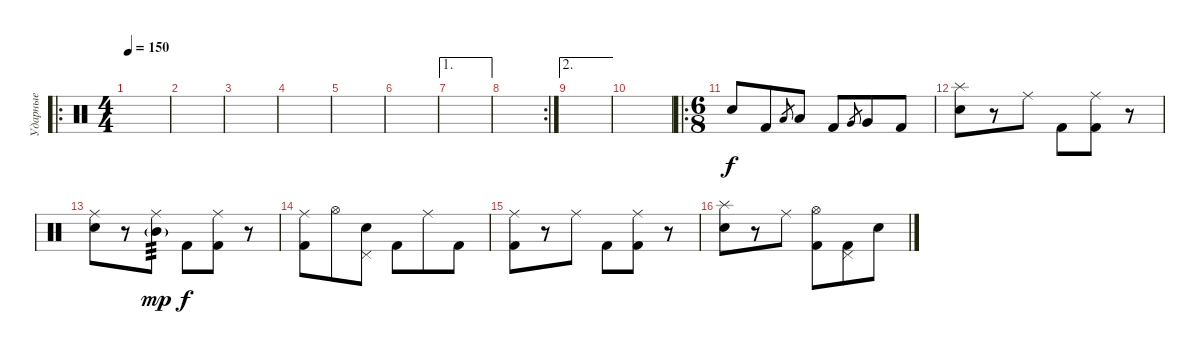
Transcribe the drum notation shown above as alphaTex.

\track ("Ударные" "Ударные") {instrument percussion}
\staff {score}
\articulation defaults
\ro
\ts (4 4)
\tempo 150
\clef neutral
\ks c
|
|
|
|
|
|
\ae 1
|
\rc 2
|
\ae 2
|
|
\ro
\ts (6 8)
"Electric Snare (hit)".8 "Kick (hit) 2".8 "Low Tom (hit)".8{gr} "Low Tom (hit)".8 "Kick (hit) 2".8 "Very Low Tom (hit)".8{gr} "Very Low Tom (hit)".8 "Kick (hit) 2".8 |
("Splash (hit)" "Electric Snare (hit)").8 r.8 "Ride (middle)".8 "Kick (hit) 2".8 ("Ride (middle)" "Kick (hit) 2").8 r.8 |
("Ride (middle)" "Electric Snare (hit)").8 r.8 ("Ride (middle)" "Mid Tom (hit)"{g}).8{tp 3 dy mp} "Kick (hit) 2".8{dy f} ("Ride (middle)" "Kick (hit) 2").8 r.8 |
("Ride (middle)" "Kick (hit) 2").8 "Hi-Hat (open)".8 ("Pedal Hi-Hat (hit)" "Electric Snare (hit)").8 "Kick (hit) 2".8 "Ride (middle)".8 "Kick (hit) 2".8 |
("Ride (middle)" "Kick (hit) 2").8 r.8 "Ride (middle)".8 "Kick (hit) 2".8 ("Ride (middle)" "Kick (hit) 2").8 r.8 |
("Splash (hit)" "Electric Snare (hit)").8 r.8 "Ride (middle)".8 ("Hi-Hat (open)" "Kick (hit) 2").8 ("Pedal Hi-Hat (hit)" "Kick (hit) 2").8 "Electric Snare (hit)".8
